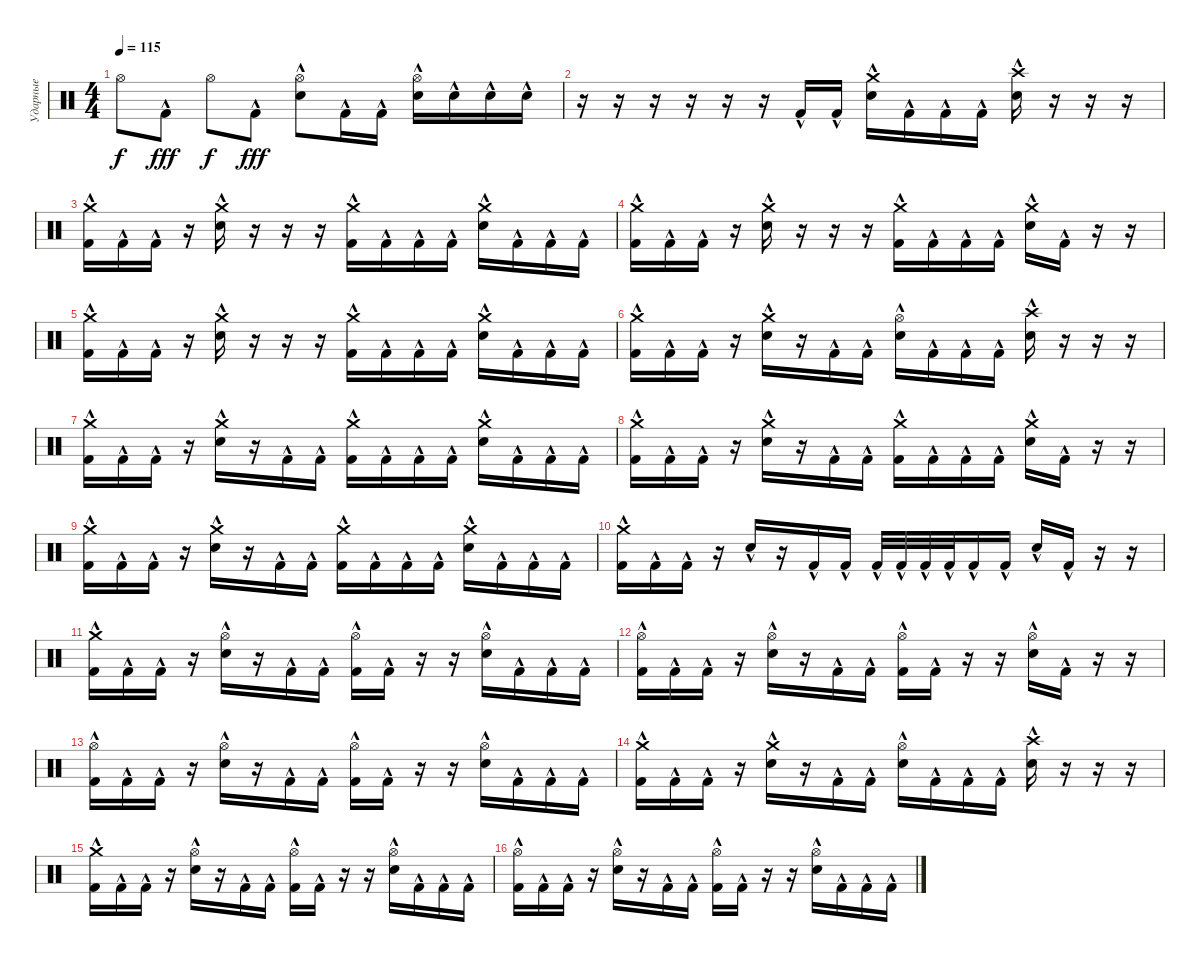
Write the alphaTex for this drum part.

\track ("Ударные" "Ударные") {instrument percussion}
\staff
\articulation defaults
\ts (4 4)
\tempo 115
\clef neutral
\ks c "Hi-Hat (open)".8{dy f} "Kick (hit) 2"{hac}.8{dy fff} "Hi-Hat (open)".8{dy f} "Kick (hit) 2"{hac}.8{dy fff}
("Hi-Hat (open)" "Snare (hit) 2"{hac}).8 "Kick (hit) 2"{hac}.16 "Kick (hit) 2"{hac}.16 ("Hi-Hat (open)" "Snare (hit) 2"{hac}).16 "Snare (hit) 2"{hac}.16 "Snare (hit) 2"{hac}.16 "Snare (hit) 2"{hac}.16 |
r.16 r.16 r.16 r.16 r.16 r.16 "Kick (hit) 2"{hac}.16 "Kick (hit) 2"{hac}.16 ("Crash medium (hit)" "Snare (hit) 2"{hac}).16 "Kick (hit) 2"{hac}.16 "Kick (hit) 2"{hac}.16 "Kick (hit) 2"{hac}.16 ("Crash high (hit)" "Snare (hit) 2"{hac}).16 r.16 r.16 r.16 |
("Crash medium (hit)" "Kick (hit) 2"{hac}).16 "Kick (hit) 2"{hac}.16 "Kick (hit) 2"{hac}.16 r.16 ("Crash medium (hit)" "Snare (hit) 2"{hac}).16 r.16 r.16 r.16 ("Crash medium (hit)" "Kick (hit) 2"{hac}).16 "Kick (hit) 2"{hac}.16 "Kick (hit) 2"{hac}.16 "Kick (hit) 2"{hac}.16 ("Crash medium (hit)" "Snare (hit) 2"{hac}).16 "Kick (hit) 2"{hac}.16 "Kick (hit) 2"{hac}.16 "Kick (hit) 2"{hac}.16 |
("Crash medium (hit)" "Kick (hit) 2"{hac}).16 "Kick (hit) 2"{hac}.16 "Kick (hit) 2"{hac}.16 r.16 ("Crash medium (hit)" "Snare (hit) 2"{hac}).16 r.16 r.16 r.16 ("Crash medium (hit)" "Kick (hit) 2"{hac}).16 "Kick (hit) 2"{hac}.16 "Kick (hit) 2"{hac}.16 "Kick (hit) 2"{hac}.16 ("Crash medium (hit)" "Snare (hit) 2"{hac}).16 "Kick (hit) 2"{hac}.16 r.16 r.16 |
("Crash medium (hit)" "Kick (hit) 2"{hac}).16 "Kick (hit) 2"{hac}.16 "Kick (hit) 2"{hac}.16 r.16 ("Crash medium (hit)" "Snare (hit) 2"{hac}).16 r.16 r.16 r.16 ("Crash medium (hit)" "Kick (hit) 2"{hac}).16 "Kick (hit) 2"{hac}.16 "Kick (hit) 2"{hac}.16 "Kick (hit) 2"{hac}.16 ("Crash medium (hit)" "Snare (hit) 2"{hac}).16 "Kick (hit) 2"{hac}.16 "Kick (hit) 2"{hac}.16 "Kick (hit) 2"{hac}.16 |
("Crash medium (hit)" "Kick (hit) 2"{hac}).16 "Kick (hit) 2"{hac}.16 "Kick (hit) 2"{hac}.16 r.16 ("Crash medium (hit)" "Snare (hit) 2"{hac}).16 r.16 "Kick (hit) 2"{hac}.16 "Kick (hit) 2"{hac}.16 ("Hi-Hat (open)" "Snare (hit) 2"{hac}).16 "Kick (hit) 2"{hac}.16 "Kick (hit) 2"{hac}.16 "Kick (hit) 2"{hac}.16 ("Crash high (hit)" "Snare (hit) 2"{hac}).16 r.16 r.16 r.16 |
("Crash medium (hit)" "Kick (hit) 2"{hac}).16 "Kick (hit) 2"{hac}.16 "Kick (hit) 2"{hac}.16 r.16 ("Crash medium (hit)" "Snare (hit) 2"{hac}).16 r.16 "Kick (hit) 2"{hac}.16 "Kick (hit) 2"{hac}.16 ("Crash medium (hit)" "Kick (hit) 2"{hac}).16 "Kick (hit) 2"{hac}.16 "Kick (hit) 2"{hac}.16 "Kick (hit) 2"{hac}.16 ("Crash medium (hit)" "Snare (hit) 2"{hac}).16 "Kick (hit) 2"{hac}.16 "Kick (hit) 2"{hac}.16 "Kick (hit) 2"{hac}.16 |
("Crash medium (hit)" "Kick (hit) 2"{hac}).16 "Kick (hit) 2"{hac}.16 "Kick (hit) 2"{hac}.16 r.16 ("Crash medium (hit)" "Snare (hit) 2"{hac}).16 r.16 "Kick (hit) 2"{hac}.16 "Kick (hit) 2"{hac}.16 ("Crash medium (hit)" "Kick (hit) 2"{hac}).16 "Kick (hit) 2"{hac}.16 "Kick (hit) 2"{hac}.16 "Kick (hit) 2"{hac}.16 ("Crash medium (hit)" "Snare (hit) 2"{hac}).16 "Kick (hit) 2"{hac}.16 r.16 r.16 |
("Crash medium (hit)" "Kick (hit) 2"{hac}).16 "Kick (hit) 2"{hac}.16 "Kick (hit) 2"{hac}.16 r.16 ("Crash medium (hit)" "Snare (hit) 2"{hac}).16 r.16 "Kick (hit) 2"{hac}.16 "Kick (hit) 2"{hac}.16 ("Crash medium (hit)" "Kick (hit) 2"{hac}).16 "Kick (hit) 2"{hac}.16 "Kick (hit) 2"{hac}.16 "Kick (hit) 2"{hac}.16 ("Crash medium (hit)" "Snare (hit) 2"{hac}).16 "Kick (hit) 2"{hac}.16 "Kick (hit) 2"{hac}.16 "Kick (hit) 2"{hac}.16 |
("Crash medium (hit)" "Kick (hit) 2"{hac}).16 "Kick (hit) 2"{hac}.16 "Kick (hit) 2"{hac}.16 r.16 "Snare (hit) 2"{hac}.16 r.16 "Kick (hit) 2"{hac}.16 "Kick (hit) 2"{hac}.16 "Kick (hit) 2"{hac}.32 "Kick (hit) 2"{hac}.32 "Kick (hit) 2"{hac}.32 "Kick (hit) 2"{hac}.32 "Kick (hit) 2"{hac}.16 "Kick (hit) 2"{hac}.16 "Snare (hit) 2"{hac}.16 "Kick (hit) 2"{hac}.16 r.16 r.16 |
("Crash medium (hit)" "Kick (hit) 2"{hac}).16 "Kick (hit) 2"{hac}.16 "Kick (hit) 2"{hac}.16 r.16 ("Hi-Hat (open)" "Snare (hit) 2"{hac}).16 r.16 "Kick (hit) 2"{hac}.16 "Kick (hit) 2"{hac}.16 ("Hi-Hat (open)" "Kick (hit) 2"{hac}).16 "Kick (hit) 2"{hac}.16 r.16 r.16 ("Hi-Hat (open)" "Snare (hit) 2"{hac}).16 "Kick (hit) 2"{hac}.16 "Kick (hit) 2"{hac}.16 "Kick (hit) 2"{hac}.16 |
("Hi-Hat (open)" "Kick (hit) 2"{hac}).16 "Kick (hit) 2"{hac}.16 "Kick (hit) 2"{hac}.16 r.16 ("Hi-Hat (open)" "Snare (hit) 2"{hac}).16 r.16 "Kick (hit) 2"{hac}.16 "Kick (hit) 2"{hac}.16 ("Hi-Hat (open)" "Kick (hit) 2"{hac}).16 "Kick (hit) 2"{hac}.16 r.16 r.16 ("Hi-Hat (open)" "Snare (hit) 2"{hac}).16 "Kick (hit) 2"{hac}.16 r.16 r.16 |
("Hi-Hat (open)" "Kick (hit) 2"{hac}).16 "Kick (hit) 2"{hac}.16 "Kick (hit) 2"{hac}.16 r.16 ("Hi-Hat (open)" "Snare (hit) 2"{hac}).16 r.16 "Kick (hit) 2"{hac}.16 "Kick (hit) 2"{hac}.16 ("Hi-Hat (open)" "Kick (hit) 2"{hac}).16 "Kick (hit) 2"{hac}.16 r.16 r.16 ("Hi-Hat (open)" "Snare (hit) 2"{hac}).16 "Kick (hit) 2"{hac}.16 "Kick (hit) 2"{hac}.16 "Kick (hit) 2"{hac}.16 |
("Crash medium (hit)" "Kick (hit) 2"{hac}).16 "Kick (hit) 2"{hac}.16 "Kick (hit) 2"{hac}.16 r.16 ("Crash medium (hit)" "Snare (hit) 2"{hac}).16 r.16 "Kick (hit) 2"{hac}.16 "Kick (hit) 2"{hac}.16 ("Hi-Hat (open)" "Snare (hit) 2"{hac}).16 "Kick (hit) 2"{hac}.16 "Kick (hit) 2"{hac}.16 "Kick (hit) 2"{hac}.16 ("Crash high (hit)" "Snare (hit) 2"{hac}).16 r.16 r.16 r.16 |
("Crash medium (hit)" "Kick (hit) 2"{hac}).16 "Kick (hit) 2"{hac}.16 "Kick (hit) 2"{hac}.16 r.16 ("Hi-Hat (open)" "Snare (hit) 2"{hac}).16 r.16 "Kick (hit) 2"{hac}.16 "Kick (hit) 2"{hac}.16 ("Hi-Hat (open)" "Kick (hit) 2"{hac}).16 "Kick (hit) 2"{hac}.16 r.16 r.16 ("Hi-Hat (open)" "Snare (hit) 2"{hac}).16 "Kick (hit) 2"{hac}.16 "Kick (hit) 2"{hac}.16 "Kick (hit) 2"{hac}.16 |
("Hi-Hat (open)" "Kick (hit) 2"{hac}).16 "Kick (hit) 2"{hac}.16 "Kick (hit) 2"{hac}.16 r.16 ("Hi-Hat (open)" "Snare (hit) 2"{hac}).16 r.16 "Kick (hit) 2"{hac}.16 "Kick (hit) 2"{hac}.16 ("Hi-Hat (open)" "Kick (hit) 2"{hac}).16 "Kick (hit) 2"{hac}.16 r.16 r.16 ("Hi-Hat (open)" "Snare (hit) 2"{hac}).16 "Kick (hit) 2"{hac}.16 "Kick (hit) 2"{hac}.16 "Kick (hit) 2"{hac}.16
